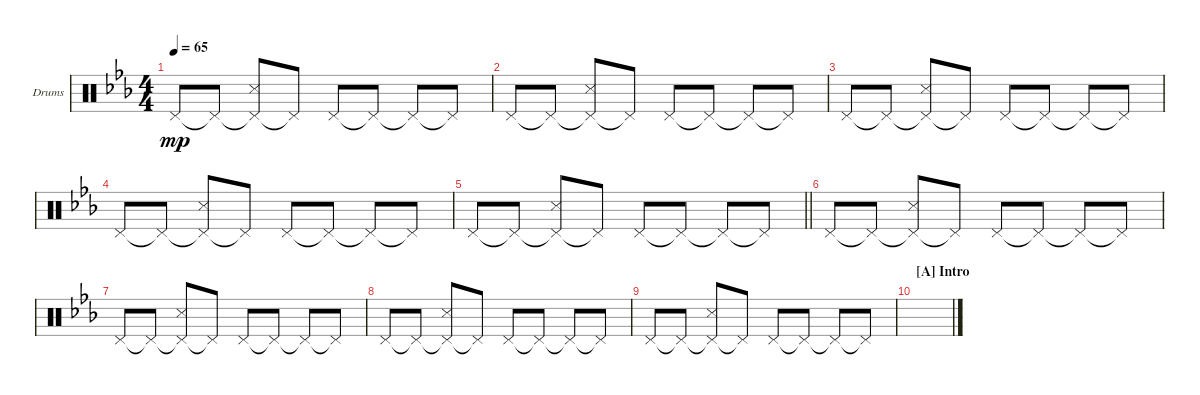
\defaultSystemsLayout 4
\bracketExtendMode groupsimilarinstruments
\firstSystemTrackNameOrientation horizontal
\otherSystemsTrackNameOrientation horizontal
\track ("Drum" "Drums") {multiBarRest instrument percussion}
\staff {score}
\articulation defaults
\ts (4 4)
\tempo 65
\clef neutral
\ks cminor "Pedal Hi-Hat (hit)".8{dy mp} "Pedal Hi-Hat (hit)"{t}.8
("Pedal Hi-Hat (hit)"{t} "Snare (side stick) 3").8 "Pedal Hi-Hat (hit)"{t}.8 "Pedal Hi-Hat (hit)".8 "Pedal Hi-Hat (hit)"{t}.8 "Pedal Hi-Hat (hit)"{t}.8 "Pedal Hi-Hat (hit)"{t}.8 |
"Pedal Hi-Hat (hit)".8 "Pedal Hi-Hat (hit)"{t}.8 ("Pedal Hi-Hat (hit)"{t} "Snare (side stick) 3").8 "Pedal Hi-Hat (hit)"{t}.8 "Pedal Hi-Hat (hit)".8 "Pedal Hi-Hat (hit)"{t}.8 "Pedal Hi-Hat (hit)"{t}.8 "Pedal Hi-Hat (hit)"{t}.8 |
"Pedal Hi-Hat (hit)".8 "Pedal Hi-Hat (hit)"{t}.8 ("Pedal Hi-Hat (hit)"{t} "Snare (side stick) 3").8 "Pedal Hi-Hat (hit)"{t}.8 "Pedal Hi-Hat (hit)".8 "Pedal Hi-Hat (hit)"{t}.8 "Pedal Hi-Hat (hit)"{t}.8 "Pedal Hi-Hat (hit)"{t}.8 |
"Pedal Hi-Hat (hit)".8 "Pedal Hi-Hat (hit)"{t}.8 ("Pedal Hi-Hat (hit)"{t} "Snare (side stick) 3").8 "Pedal Hi-Hat (hit)"{t}.8 "Pedal Hi-Hat (hit)".8 "Pedal Hi-Hat (hit)"{t}.8 "Pedal Hi-Hat (hit)"{t}.8 "Pedal Hi-Hat (hit)"{t}.8 |
\barLineRight lightlight "Pedal Hi-Hat (hit)".8 "Pedal Hi-Hat (hit)"{t}.8
("Pedal Hi-Hat (hit)"{t} "Snare (side stick) 3").8 "Pedal Hi-Hat (hit)"{t}.8 "Pedal Hi-Hat (hit)".8 "Pedal Hi-Hat (hit)"{t}.8 "Pedal Hi-Hat (hit)"{t}.8 "Pedal Hi-Hat (hit)"{t}.8 |
"Pedal Hi-Hat (hit)".8 "Pedal Hi-Hat (hit)"{t}.8 ("Pedal Hi-Hat (hit)"{t} "Snare (side stick) 3").8 "Pedal Hi-Hat (hit)"{t}.8 "Pedal Hi-Hat (hit)".8 "Pedal Hi-Hat (hit)"{t}.8 "Pedal Hi-Hat (hit)"{t}.8 "Pedal Hi-Hat (hit)"{t}.8 |
"Pedal Hi-Hat (hit)".8 "Pedal Hi-Hat (hit)"{t}.8 ("Pedal Hi-Hat (hit)"{t} "Snare (side stick) 3").8 "Pedal Hi-Hat (hit)"{t}.8 "Pedal Hi-Hat (hit)".8 "Pedal Hi-Hat (hit)"{t}.8 "Pedal Hi-Hat (hit)"{t}.8 "Pedal Hi-Hat (hit)"{t}.8 |
"Pedal Hi-Hat (hit)".8 "Pedal Hi-Hat (hit)"{t}.8 ("Pedal Hi-Hat (hit)"{t} "Snare (side stick) 3").8 "Pedal Hi-Hat (hit)"{t}.8 "Pedal Hi-Hat (hit)".8 "Pedal Hi-Hat (hit)"{t}.8 "Pedal Hi-Hat (hit)"{t}.8 "Pedal Hi-Hat (hit)"{t}.8 |
"Pedal Hi-Hat (hit)".8 "Pedal Hi-Hat (hit)"{t}.8 ("Pedal Hi-Hat (hit)"{t} "Snare (side stick) 3").8 "Pedal Hi-Hat (hit)"{t}.8 "Pedal Hi-Hat (hit)".8 "Pedal Hi-Hat (hit)"{t}.8 "Pedal Hi-Hat (hit)"{t}.8 "Pedal Hi-Hat (hit)"{t}.8 |
\section ("A" "Intro")
